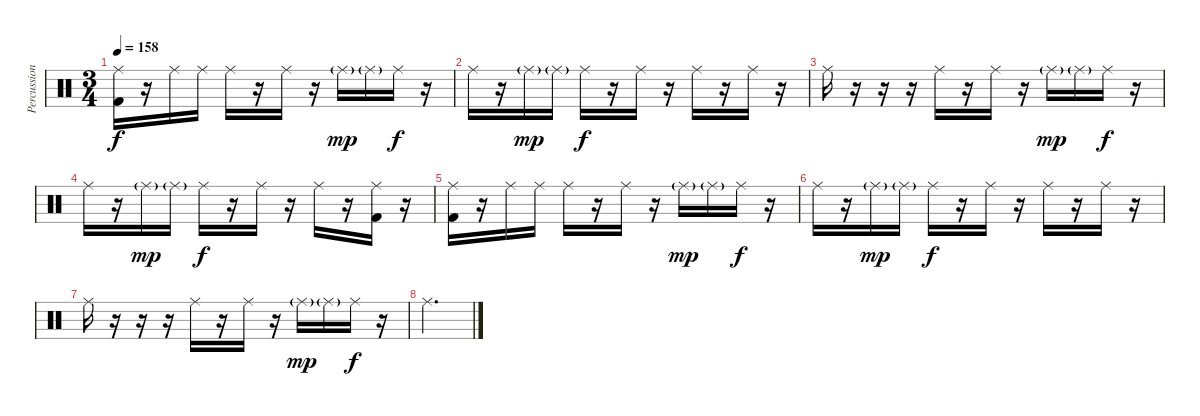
\track ("Percussion" "Percussion") {instrument percussion}
\staff {score}
\articulation defaults
\ts (3 4)
\tempo 158
\clef neutral
\ks c
("Ride (middle)" "Kick (hit) 2").16{dy f} r.16 "Ride (middle)".16 "Ride (middle)".16 "Ride (middle)".16 r.16 "Ride (middle)".16 r.16 "Ride (middle)"{g}.16{dy mp} "Ride (middle)"{g}.16 "Ride (middle)".16{dy f} r.16 |
"Ride (middle)".16 r.16 "Ride (middle)"{g}.16{dy mp} "Ride (middle)"{g}.16 "Ride (middle)".16{dy f} r.16 "Ride (middle)".16 r.16 "Ride (middle)".16 r.16 "Ride (middle)".16 r.16 |
"Ride (middle)".16 r.16 r.16 r.16 "Ride (middle)".16 r.16 "Ride (middle)".16 r.16 "Ride (middle)"{g}.16{dy mp} "Ride (middle)"{g}.16 "Ride (middle)".16{dy f} r.16 |
"Ride (middle)".16 r.16 "Ride (middle)"{g}.16{dy mp} "Ride (middle)"{g}.16 "Ride (middle)".16{dy f} r.16 "Ride (middle)".16 r.16 "Ride (middle)".16 r.16 ("Ride (middle)" "Kick (hit) 2").16 r.16 |
("Ride (middle)" "Kick (hit) 2").16 r.16 "Ride (middle)".16 "Ride (middle)".16 "Ride (middle)".16 r.16 "Ride (middle)".16 r.16 "Ride (middle)"{g}.16{dy mp} "Ride (middle)"{g}.16 "Ride (middle)".16{dy f} r.16 |
"Ride (middle)".16 r.16 "Ride (middle)"{g}.16{dy mp} "Ride (middle)"{g}.16 "Ride (middle)".16{dy f} r.16 "Ride (middle)".16 r.16 "Ride (middle)".16 r.16 "Ride (middle)".16 r.16 |
"Ride (middle)".16 r.16 r.16 r.16 "Ride (middle)".16 r.16 "Ride (middle)".16 r.16 "Ride (middle)"{g}.16{dy mp} "Ride (middle)"{g}.16 "Ride (middle)".16{dy f} r.16 |
"Ride (middle)".2{d}
